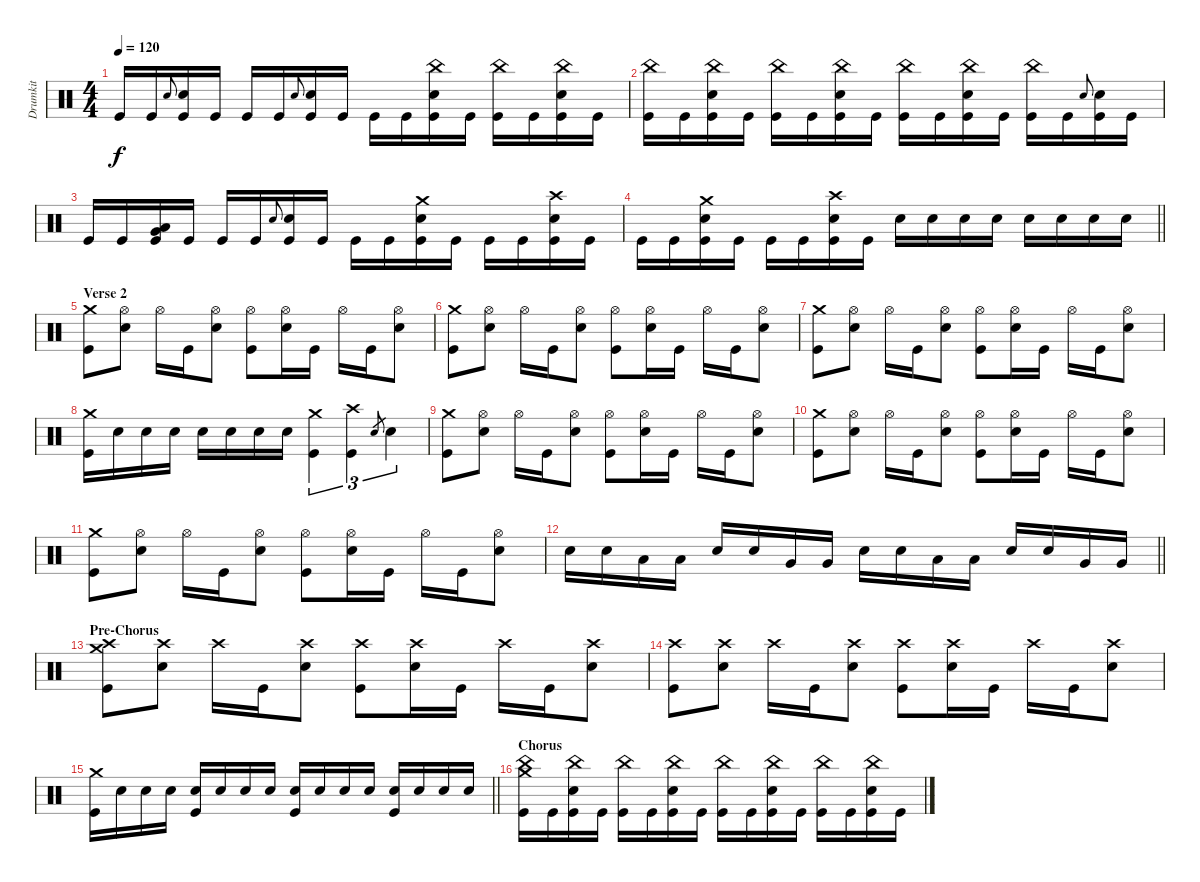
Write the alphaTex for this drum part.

\track ("Drumkit" "Drumkit") {instrument percussion}
\staff {score}
\articulation defaults
\ts (4 4)
\tempo 120
\clef neutral
\ks c "Kick (hit)".16{dy f} "Kick (hit)".16 "Snare (hit)".8{gr onbeat}
("Kick (hit)" "Snare (hit) 2").16 "Kick (hit)".16 "Kick (hit)".16 "Kick (hit)".16 "Snare (hit)".8{gr onbeat} ("Kick (hit)" "Snare (hit) 2").16 "Kick (hit)".16 "Kick (hit)".16 "Kick (hit)".16 ("Kick (hit)" "Snare (hit) 2" "China (hit)").16 "Kick (hit)".16 ("Kick (hit)" "China (hit)").16 "Kick (hit)".16 ("Kick (hit)" "Snare (hit) 2" "China (hit)").16 "Kick (hit)".16 |
("China (hit)" "Kick (hit)").16 "Kick (hit)".16 ("Kick (hit)" "Snare (hit) 2" "China (hit)").16 "Kick (hit)".16 ("Kick (hit)" "China (hit)").16 "Kick (hit)".16 ("Kick (hit)" "Snare (hit) 2" "China (hit)").16 "Kick (hit)".16 ("Kick (hit)" "China (hit)").16 "Kick (hit)".16 ("Kick (hit)" "Snare (hit) 2" "China (hit)").16 "Kick (hit)".16 ("Kick (hit)" "China (hit)").16 "Kick (hit)".16 "Snare (hit)".8{gr onbeat} ("Kick (hit)" "Snare (hit) 2").16 "Kick (hit)".16 |
"Kick (hit)".16 "Kick (hit)".16 ("Kick (hit)" "Low Tom (hit)" "Very Low Tom (hit)").16 "Kick (hit)".16 "Kick (hit)".16 "Kick (hit)".16 "Snare (hit)".8{gr onbeat} ("Snare (hit) 2" "Kick (hit)").16 "Kick (hit)".16 "Kick (hit)".16 "Kick (hit)".16 ("Snare (hit) 2" "Kick (hit)" "Crash medium (hit)").16 "Kick (hit)".16 "Kick (hit)".16 "Kick (hit)".16 ("Snare (hit) 2" "Kick (hit)" "Crash high (hit)").16 "Kick (hit)".16 |
\barLineRight lightlight "Kick (hit)".16 "Kick (hit)".16
("Kick (hit)" "Crash medium (hit)" "Snare (hit) 2").16 "Kick (hit)".16 "Kick (hit)".16 "Kick (hit)".16 ("Snare (hit) 2" "Kick (hit)" "Crash high (hit)").16 "Kick (hit)".16 "Snare (hit) 2".16 "Snare (hit) 2".16 "Snare (hit) 2".16 "Snare (hit) 2".16 "Snare (hit) 2".16 "Snare (hit) 2".16 "Snare (hit) 2".16 "Snare (hit) 2".16 |
\section ("" "Verse 2")
("Crash medium (hit)" "Kick (hit)").8 ("Snare (hit) 2" "Hi-Hat (open)").8 "Hi-Hat (open)".16 "Kick (hit)".16 ("Snare (hit) 2" "Hi-Hat (open)").8 ("Kick (hit)" "Hi-Hat (open)").8 ("Snare (hit) 2" "Hi-Hat (open)").16 "Kick (hit)".16 "Hi-Hat (open)".16 "Kick (hit)".16 ("Snare (hit) 2" "Hi-Hat (open)").8 |
("Crash medium (hit)" "Kick (hit)").8 ("Snare (hit) 2" "Hi-Hat (open)").8 "Hi-Hat (open)".16 "Kick (hit)".16 ("Snare (hit) 2" "Hi-Hat (open)").8 ("Kick (hit)" "Hi-Hat (open)").8 ("Snare (hit) 2" "Hi-Hat (open)").16 "Kick (hit)".16 "Hi-Hat (open)".16 "Kick (hit)".16 ("Snare (hit) 2" "Hi-Hat (open)").8 |
("Crash medium (hit)" "Kick (hit)").8 ("Snare (hit) 2" "Hi-Hat (open)").8 "Hi-Hat (open)".16 "Kick (hit)".16 ("Snare (hit) 2" "Hi-Hat (open)").8 ("Kick (hit)" "Hi-Hat (open)").8 ("Snare (hit) 2" "Hi-Hat (open)").16 "Kick (hit)".16 "Hi-Hat (open)".16 "Kick (hit)".16 ("Snare (hit) 2" "Hi-Hat (open)").8 |
("Crash medium (hit)" "Kick (hit)").16 "Snare (hit) 2".16 "Snare (hit) 2".16 "Snare (hit) 2".16 "Snare (hit) 2".16 "Snare (hit) 2".16 "Snare (hit) 2".16 "Snare (hit) 2".16 ("Crash medium (hit)" "Kick (hit)").4{tu (3 2)} ("Kick (hit)" "Crash high (hit)").4{tu (3 2)} "Snare (hit)".8{gr} "Snare (hit) 2".4{tu (3 2)} |
("Crash medium (hit)" "Kick (hit)").8 ("Snare (hit) 2" "Hi-Hat (open)").8 "Hi-Hat (open)".16 "Kick (hit)".16 ("Snare (hit) 2" "Hi-Hat (open)").8 ("Kick (hit)" "Hi-Hat (open)").8 ("Snare (hit) 2" "Hi-Hat (open)").16 "Kick (hit)".16 "Hi-Hat (open)".16 "Kick (hit)".16 ("Snare (hit) 2" "Hi-Hat (open)").8 |
("Crash medium (hit)" "Kick (hit)").8 ("Snare (hit) 2" "Hi-Hat (open)").8 "Hi-Hat (open)".16 "Kick (hit)".16 ("Snare (hit) 2" "Hi-Hat (open)").8 ("Kick (hit)" "Hi-Hat (open)").8 ("Snare (hit) 2" "Hi-Hat (open)").16 "Kick (hit)".16 "Hi-Hat (open)".16 "Kick (hit)".16 ("Snare (hit) 2" "Hi-Hat (open)").8 |
("Crash medium (hit)" "Kick (hit)").8 ("Snare (hit) 2" "Hi-Hat (open)").8 "Hi-Hat (open)".16 "Kick (hit)".16 ("Snare (hit) 2" "Hi-Hat (open)").8 ("Kick (hit)" "Hi-Hat (open)").8 ("Snare (hit) 2" "Hi-Hat (open)").16 "Kick (hit)".16 "Hi-Hat (open)".16 "Kick (hit)".16 ("Snare (hit) 2" "Hi-Hat (open)").8 |
\barLineRight lightlight "Snare (hit) 2".16 "Snare (hit) 2".16 "Low Tom (hit)".16 "Low Tom (hit)".16 "Snare (hit) 2".16 "Snare (hit) 2".16 "Very Low Tom (hit)".16 "Very Low Tom (hit)".16 "Snare (hit) 2".16 "Snare (hit) 2".16 "Low Tom (hit)".16 "Low Tom (hit)".16 "Snare (hit) 2".16 "Snare (hit) 2".16 "Very Low Tom (hit)".16 "Very Low Tom (hit)".16
|
\section ("" "Pre-Chorus")
("Crash medium (hit)" "Kick (hit)" "Crash high (hit)").8 ("Snare (hit) 2" "Crash high (hit)").8 "Crash high (hit)".16 "Kick (hit)".16 ("Snare (hit) 2" "Crash high (hit)").8 ("Kick (hit)" "Crash high (hit)").8 ("Snare (hit) 2" "Crash high (hit)").16 "Kick (hit)".16 "Crash high (hit)".16 "Kick (hit)".16 ("Snare (hit) 2" "Crash high (hit)").8 |
("Kick (hit)" "Crash high (hit)").8 ("Snare (hit) 2" "Crash high (hit)").8 "Crash high (hit)".16 "Kick (hit)".16 ("Snare (hit) 2" "Crash high (hit)").8 ("Kick (hit)" "Crash high (hit)").8 ("Snare (hit) 2" "Crash high (hit)").16 "Kick (hit)".16 "Crash high (hit)".16 "Kick (hit)".16 ("Snare (hit) 2" "Crash high (hit)").8 |
\barLineRight lightlight
("Kick (hit)" "Crash medium (hit)").16 "Snare (hit) 2".16 "Snare (hit) 2".16 "Snare (hit) 2".16 ("Kick (hit)" "Snare (hit) 2").16 "Snare (hit) 2".16 "Snare (hit) 2".16 "Snare (hit) 2".16 ("Kick (hit)" "Snare (hit) 2").16 "Snare (hit) 2".16 "Snare (hit) 2".16 "Snare (hit) 2".16 ("Kick (hit)" "Snare (hit) 2").16 "Snare (hit) 2".16 "Snare (hit) 2".16 "Snare (hit) 2".16 |
\section ("" "Chorus")
("China (hit)" "Kick (hit)" "Crash medium (hit)").16 "Kick (hit)".16 ("Kick (hit)" "Snare (hit) 2" "China (hit)").16 "Kick (hit)".16 ("Kick (hit)" "China (hit)").16 "Kick (hit)".16 ("Kick (hit)" "Snare (hit) 2" "China (hit)").16 "Kick (hit)".16 ("Kick (hit)" "China (hit)").16 "Kick (hit)".16 ("Kick (hit)" "Snare (hit) 2" "China (hit)").16 "Kick (hit)".16 ("Kick (hit)" "China (hit)").16 "Kick (hit)".16 ("Kick (hit)" "Snare (hit) 2" "China (hit)").16 "Kick (hit)".16
